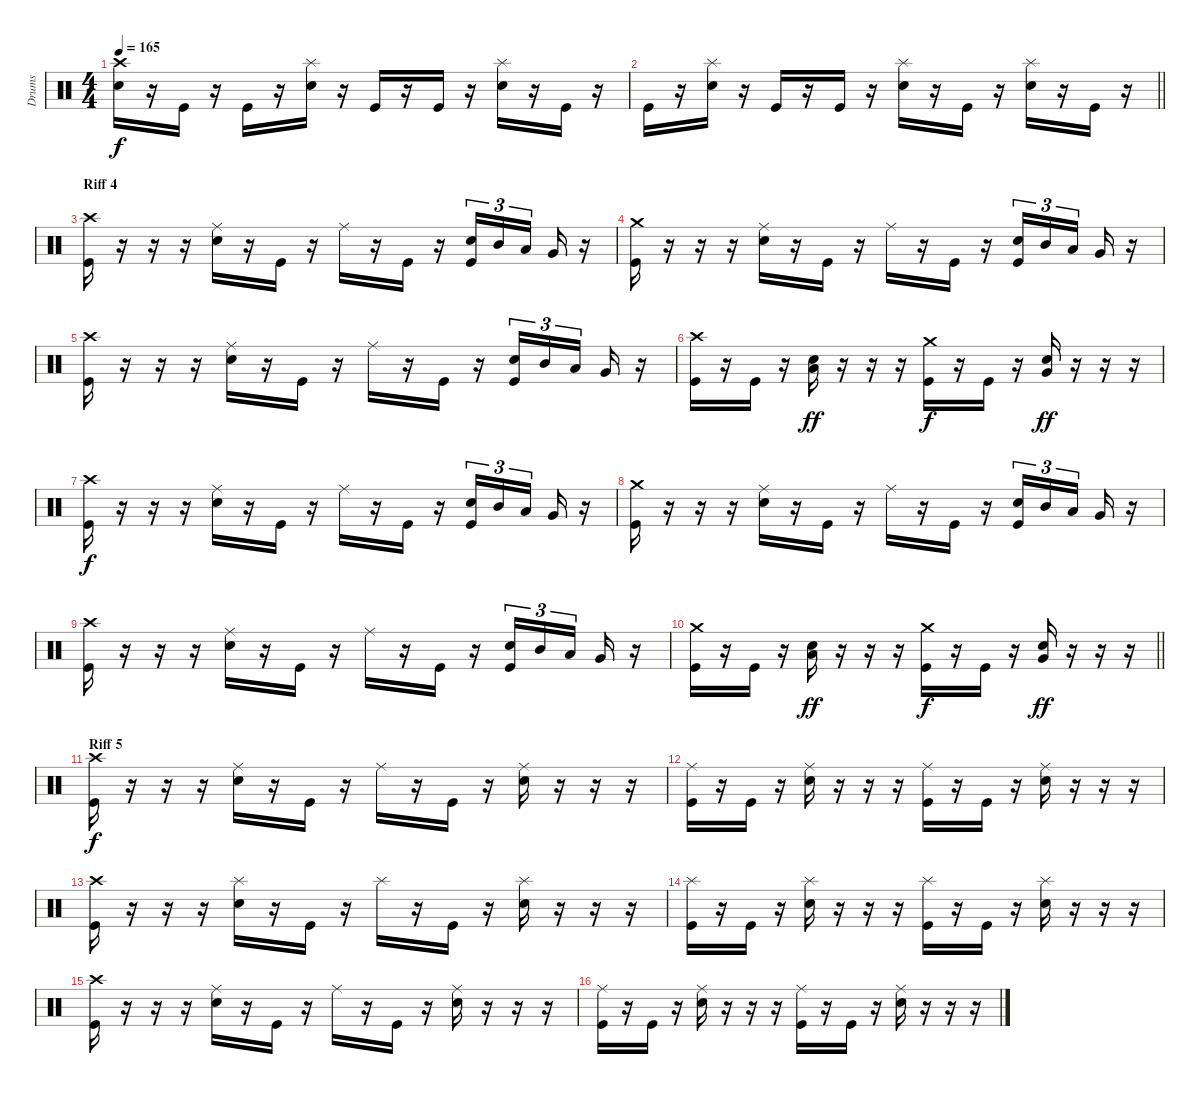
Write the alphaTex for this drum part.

\track ("Drums" "Drums") {instrument percussion}
\staff {score}
\articulation defaults
\ts (4 4)
\tempo 165
\clef neutral
\ks c
("Crash high (hit)" "Electric Snare (hit)").16{dy f} r.16 "Kick (hit)".16 r.16 "Kick (hit)".16 r.16 ("Splash (hit)" "Electric Snare (hit)").16 r.16 "Kick (hit)".16 r.16 "Kick (hit)".16 r.16 ("Splash (hit)" "Electric Snare (hit)").16 r.16 "Kick (hit)".16 r.16 |
\barLineRight lightlight "Kick (hit)".16
r.16 ("Splash (hit)" "Electric Snare (hit)").16 r.16 "Kick (hit)".16 r.16 "Kick (hit)".16 r.16 ("Splash (hit)" "Electric Snare (hit)").16 r.16 "Kick (hit)".16 r.16 ("Splash (hit)" "Electric Snare (hit)").16 r.16 "Kick (hit)".16 r.16 |
\section ("" "Riff 4")
("Crash high (hit)" "Kick (hit)").16 r.16 r.16 r.16 ("Ride (middle)" "Electric Snare (hit)").16 r.16 "Kick (hit)".16 r.16 "Ride (middle)".16 r.16 "Kick (hit)".16 r.16 ("Electric Snare (hit)" "Kick (hit)").16{tu (3 2)} "Mid Tom (hit)".16{tu (3 2)} "Low Tom (hit)".16{tu (3 2) beam splitsecondary} "Very Low Tom (hit)".16 r.16 |
("Crash medium (hit)" "Kick (hit)").16 r.16 r.16 r.16 ("Ride (middle)" "Electric Snare (hit)").16 r.16 "Kick (hit)".16 r.16 "Ride (middle)".16 r.16 "Kick (hit)".16 r.16 ("Electric Snare (hit)" "Kick (hit)").16{tu (3 2)} "Mid Tom (hit)".16{tu (3 2)} "Low Tom (hit)".16{tu (3 2) beam splitsecondary} "Very Low Tom (hit)".16 r.16 |
("Crash high (hit)" "Kick (hit)").16 r.16 r.16 r.16 ("Ride (middle)" "Electric Snare (hit)").16 r.16 "Kick (hit)".16 r.16 "Ride (middle)".16 r.16 "Kick (hit)".16 r.16 ("Electric Snare (hit)" "Kick (hit)").16{tu (3 2)} "Mid Tom (hit)".16{tu (3 2)} "Low Tom (hit)".16{tu (3 2) beam splitsecondary} "Very Low Tom (hit)".16 r.16 |
("Crash high (hit)" "Kick (hit)").16 r.16 "Kick (hit)".16 r.16 ("Electric Snare (hit)" "Low Tom (hit)").16{dy ff} r.16 r.16 r.16 ("Crash medium (hit)" "Kick (hit)").16{dy f} r.16 "Kick (hit)".16 r.16 ("Electric Snare (hit)" "Very Low Tom (hit)").16{dy ff} r.16 r.16 r.16 |
("Crash high (hit)" "Kick (hit)").16{dy f} r.16 r.16 r.16 ("Ride (middle)" "Electric Snare (hit)").16 r.16 "Kick (hit)".16 r.16 "Ride (middle)".16 r.16 "Kick (hit)".16 r.16 ("Electric Snare (hit)" "Kick (hit)").16{tu (3 2)} "Mid Tom (hit)".16{tu (3 2)} "Low Tom (hit)".16{tu (3 2) beam splitsecondary} "Very Low Tom (hit)".16 r.16 |
("Crash medium (hit)" "Kick (hit)").16 r.16 r.16 r.16 ("Ride (middle)" "Electric Snare (hit)").16 r.16 "Kick (hit)".16 r.16 "Ride (middle)".16 r.16 "Kick (hit)".16 r.16 ("Electric Snare (hit)" "Kick (hit)").16{tu (3 2)} "Mid Tom (hit)".16{tu (3 2)} "Low Tom (hit)".16{tu (3 2) beam splitsecondary} "Very Low Tom (hit)".16 r.16 |
("Crash high (hit)" "Kick (hit)").16 r.16 r.16 r.16 ("Ride (middle)" "Electric Snare (hit)").16 r.16 "Kick (hit)".16 r.16 "Ride (middle)".16 r.16 "Kick (hit)".16 r.16 ("Electric Snare (hit)" "Kick (hit)").16{tu (3 2)} "Mid Tom (hit)".16{tu (3 2)} "Low Tom (hit)".16{tu (3 2) beam splitsecondary} "Very Low Tom (hit)".16 r.16 |
\barLineRight lightlight
("Crash medium (hit)" "Kick (hit)").16 r.16 "Kick (hit)".16 r.16 ("Electric Snare (hit)" "Low Tom (hit)").16{dy ff} r.16 r.16 r.16 ("Crash medium (hit)" "Kick (hit)").16{dy f} r.16 "Kick (hit)".16 r.16 ("Electric Snare (hit)" "Very Low Tom (hit)").16{dy ff} r.16 r.16 r.16 |
\section ("" "Riff 5")
("Crash high (hit)" "Kick (hit)").16{dy f} r.16 r.16 r.16 ("Ride (middle)" "Electric Snare (hit)").16 r.16 "Kick (hit)".16 r.16 "Ride (middle)".16 r.16 "Kick (hit)".16 r.16 ("Ride (middle)" "Electric Snare (hit)").16 r.16 r.16 r.16 |
("Ride (middle)" "Kick (hit)").16 r.16 "Kick (hit)".16 r.16 ("Ride (middle)" "Electric Snare (hit)").16 r.16 r.16 r.16 ("Ride (middle)" "Kick (hit)").16 r.16 "Kick (hit)".16 r.16 ("Ride (middle)" "Electric Snare (hit)").16 r.16 r.16 r.16 |
("Crash high (hit)" "Kick (hit)").16 r.16 r.16 r.16 ("Splash (hit)" "Electric Snare (hit)").16 r.16 "Kick (hit)".16 r.16 "Splash (hit)".16 r.16 "Kick (hit)".16 r.16 ("Splash (hit)" "Electric Snare (hit)").16 r.16 r.16 r.16 |
("Splash (hit)" "Kick (hit)").16 r.16 "Kick (hit)".16 r.16 ("Splash (hit)" "Electric Snare (hit)").16 r.16 r.16 r.16 ("Splash (hit)" "Kick (hit)").16 r.16 "Kick (hit)".16 r.16 ("Splash (hit)" "Electric Snare (hit)").16 r.16 r.16 r.16 |
("Crash high (hit)" "Kick (hit)").16 r.16 r.16 r.16 ("Ride (middle)" "Electric Snare (hit)").16 r.16 "Kick (hit)".16 r.16 "Ride (middle)".16 r.16 "Kick (hit)".16 r.16 ("Ride (middle)" "Electric Snare (hit)").16 r.16 r.16 r.16 |
("Ride (middle)" "Kick (hit)").16 r.16 "Kick (hit)".16 r.16 ("Ride (middle)" "Electric Snare (hit)").16 r.16 r.16 r.16 ("Ride (middle)" "Kick (hit)").16 r.16 "Kick (hit)".16 r.16 ("Ride (middle)" "Electric Snare (hit)").16 r.16 r.16 r.16
